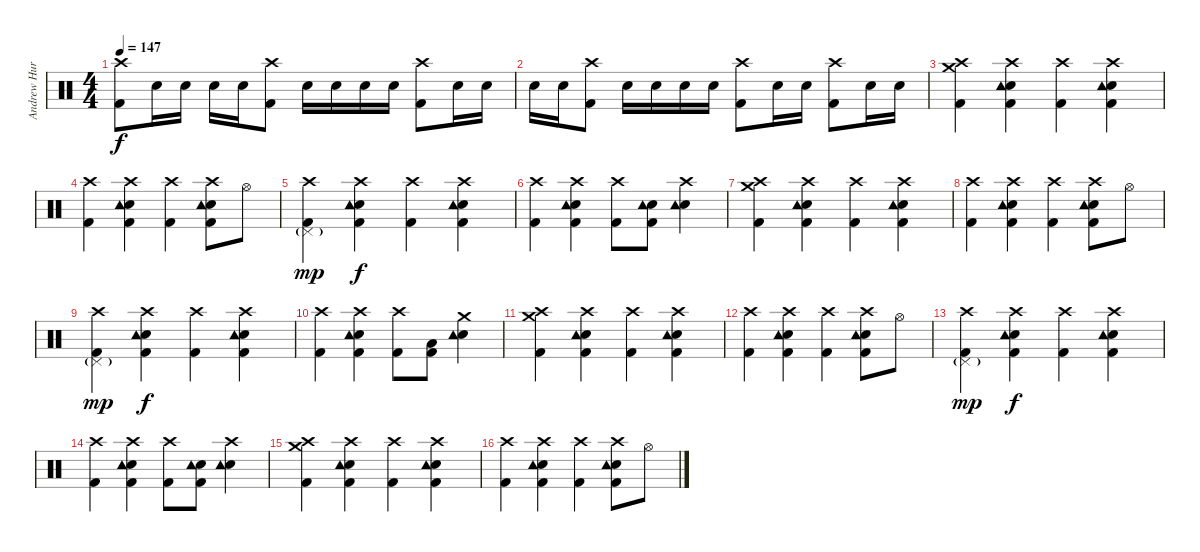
\track ("Andrew Hurley (Drums)" "Andrew Hur") {instrument percussion}
\staff {score}
\articulation defaults
\ts (4 4)
\tempo 147
\clef neutral
\ks c
("Crash high (hit)" "Kick (hit) 2").8{dy f} "Snare (hit) 2".16 "Snare (hit) 2".16 "Snare (hit) 2".16 "Snare (hit) 2".16 ("Crash high (hit)" "Kick (hit) 2").8 "Snare (hit) 2".16 "Snare (hit) 2".16 "Snare (hit) 2".16 "Snare (hit) 2".16 ("Crash high (hit)" "Kick (hit) 2").8 "Snare (hit) 2".16 "Snare (hit) 2".16 |
"Snare (hit) 2".16 "Snare (hit) 2".16 ("Crash high (hit)" "Kick (hit) 2").8 "Snare (hit) 2".16 "Snare (hit) 2".16 "Snare (hit) 2".16 "Snare (hit) 2".16 ("Crash high (hit)" "Kick (hit) 2").8 "Snare (hit) 2".16 "Snare (hit) 2".16 ("Crash high (hit)" "Kick (hit) 2").8 "Snare (hit) 2".16 "Snare (hit) 2".16 |
("Crash high (hit)" "Crash medium (hit)" "Kick (hit) 2").4 ("Crash high (hit)" "Snare (hit) 2" "Kick (hit) 2" "Tambourine (hit)").4 ("Crash high (hit)" "Kick (hit) 2").4 ("Crash high (hit)" "Snare (hit) 2" "Kick (hit) 2" "Tambourine (hit)").4 |
("Crash high (hit)" "Kick (hit) 2").4 ("Crash high (hit)" "Snare (hit) 2" "Kick (hit) 2" "Tambourine (hit)").4 ("Crash high (hit)" "Kick (hit) 2").4 ("Crash high (hit)" "Snare (hit) 2" "Kick (hit) 2" "Tambourine (hit)").8 "Hi-Hat (open)".8 |
("Crash high (hit)" "Pedal Hi-Hat (hit)"{g} "Kick (hit) 2").4{dy mp} ("Crash high (hit)" "Snare (hit) 2" "Kick (hit) 2" "Tambourine (hit)").4{dy f} ("Crash high (hit)" "Kick (hit) 2").4 ("Crash high (hit)" "Snare (hit) 2" "Kick (hit) 2" "Tambourine (hit)").4 |
("Crash high (hit)" "Kick (hit) 2").4 ("Crash high (hit)" "Snare (hit) 2" "Kick (hit) 2" "Tambourine (hit)").4 ("Crash high (hit)" "Kick (hit) 2").8 ("Snare (hit) 2" "Kick (hit) 2" "Tambourine (hit)").8 ("Crash high (hit)" "Snare (hit) 2" "Tambourine (hit)").4 |
("Crash high (hit)" "Crash medium (hit)" "Kick (hit) 2").4 ("Crash high (hit)" "Snare (hit) 2" "Kick (hit) 2" "Tambourine (hit)").4 ("Crash high (hit)" "Kick (hit) 2").4 ("Crash high (hit)" "Snare (hit) 2" "Kick (hit) 2" "Tambourine (hit)").4 |
("Crash high (hit)" "Kick (hit) 2").4 ("Crash high (hit)" "Snare (hit) 2" "Kick (hit) 2" "Tambourine (hit)").4 ("Crash high (hit)" "Kick (hit) 2").4 ("Crash high (hit)" "Snare (hit) 2" "Kick (hit) 2" "Tambourine (hit)").8 "Hi-Hat (open)".8 |
("Crash high (hit)" "Pedal Hi-Hat (hit)"{g} "Kick (hit) 2").4{dy mp} ("Crash high (hit)" "Snare (hit) 2" "Kick (hit) 2" "Tambourine (hit)").4{dy f} ("Crash high (hit)" "Kick (hit) 2").4 ("Crash high (hit)" "Snare (hit) 2" "Kick (hit) 2" "Tambourine (hit)").4 |
("Crash high (hit)" "Kick (hit) 2").4 ("Crash high (hit)" "Snare (hit) 2" "Kick (hit) 2" "Tambourine (hit)").4 ("Crash high (hit)" "Kick (hit) 2").8 ("Low Tom (hit)" "Kick (hit) 2").8 ("Crash medium (hit)" "Snare (hit) 2" "Tambourine (hit)").4 |
("Crash high (hit)" "Crash medium (hit)" "Kick (hit) 2").4 ("Crash high (hit)" "Snare (hit) 2" "Kick (hit) 2" "Tambourine (hit)").4 ("Crash high (hit)" "Kick (hit) 2").4 ("Crash high (hit)" "Snare (hit) 2" "Kick (hit) 2" "Tambourine (hit)").4 |
("Crash high (hit)" "Kick (hit) 2").4 ("Crash high (hit)" "Snare (hit) 2" "Kick (hit) 2" "Tambourine (hit)").4 ("Crash high (hit)" "Kick (hit) 2").4 ("Crash high (hit)" "Snare (hit) 2" "Kick (hit) 2" "Tambourine (hit)").8 "Hi-Hat (open)".8 |
("Crash high (hit)" "Pedal Hi-Hat (hit)"{g} "Kick (hit) 2").4{dy mp} ("Crash high (hit)" "Snare (hit) 2" "Kick (hit) 2" "Tambourine (hit)").4{dy f} ("Crash high (hit)" "Kick (hit) 2").4 ("Crash high (hit)" "Snare (hit) 2" "Kick (hit) 2" "Tambourine (hit)").4 |
("Crash high (hit)" "Kick (hit) 2").4 ("Crash high (hit)" "Snare (hit) 2" "Kick (hit) 2" "Tambourine (hit)").4 ("Crash high (hit)" "Kick (hit) 2").8 ("Snare (hit) 2" "Kick (hit) 2" "Tambourine (hit)").8 ("Crash high (hit)" "Snare (hit) 2" "Tambourine (hit)").4 |
("Crash high (hit)" "Crash medium (hit)" "Kick (hit) 2").4 ("Crash high (hit)" "Snare (hit) 2" "Kick (hit) 2" "Tambourine (hit)").4 ("Crash high (hit)" "Kick (hit) 2").4 ("Crash high (hit)" "Snare (hit) 2" "Kick (hit) 2" "Tambourine (hit)").4 |
("Crash high (hit)" "Kick (hit) 2").4 ("Crash high (hit)" "Snare (hit) 2" "Kick (hit) 2" "Tambourine (hit)").4 ("Crash high (hit)" "Kick (hit) 2").4 ("Crash high (hit)" "Snare (hit) 2" "Kick (hit) 2" "Tambourine (hit)").8 "Hi-Hat (open)".8
